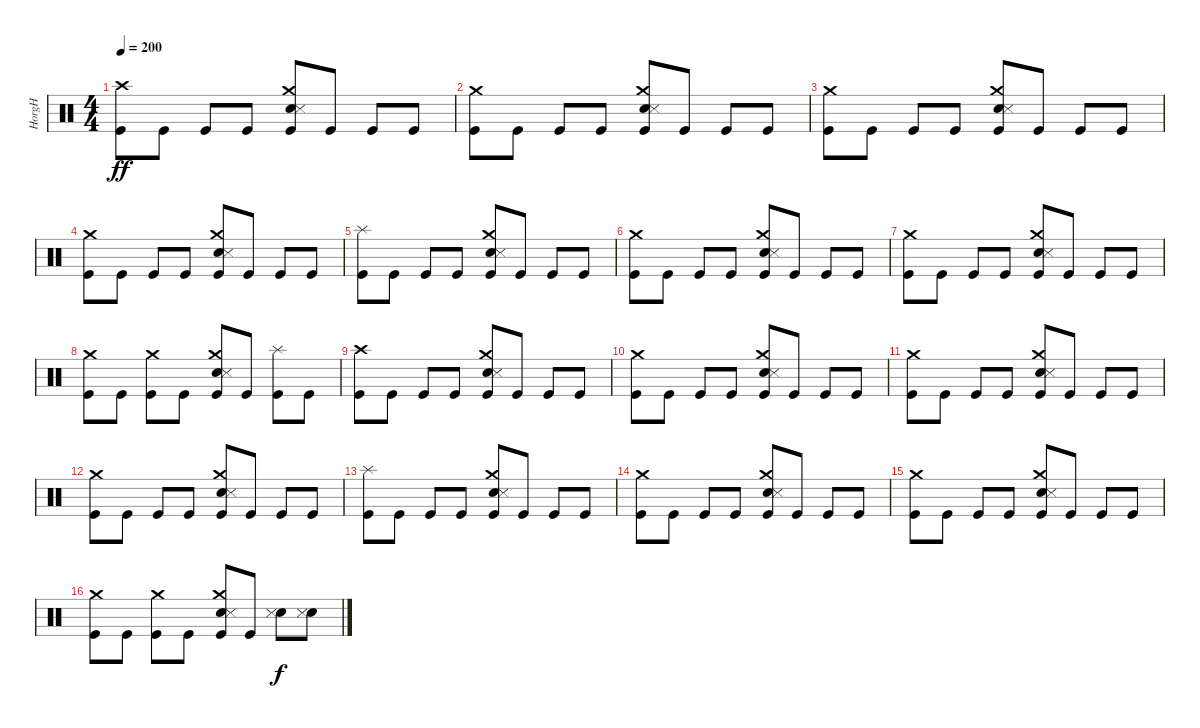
\track ("HorgH" "HorgH") {instrument percussion}
\staff {score}
\articulation defaults
\ts (4 4)
\section ("" "")
\tempo 200
\clef neutral
\ks c
("Crash high (hit)" "Kick (hit)").8{dy ff} "Kick (hit)".8 "Kick (hit)".8 "Kick (hit)".8 ("Crash medium (hit)" "Electric Snare (hit)" "Snare (side stick) 3" "Kick (hit)").8 "Kick (hit)".8 "Kick (hit)".8 "Kick (hit)".8 |
("Crash medium (hit)" "Kick (hit)").8 "Kick (hit)".8 "Kick (hit)".8 "Kick (hit)".8 ("Crash medium (hit)" "Electric Snare (hit)" "Snare (side stick) 3" "Kick (hit)").8 "Kick (hit)".8 "Kick (hit)".8 "Kick (hit)".8 |
("Crash medium (hit)" "Kick (hit)").8 "Kick (hit)".8 "Kick (hit)".8 "Kick (hit)".8 ("Crash medium (hit)" "Electric Snare (hit)" "Snare (side stick) 3" "Kick (hit)").8 "Kick (hit)".8 "Kick (hit)".8 "Kick (hit)".8 |
("Crash medium (hit)" "Kick (hit)").8 "Kick (hit)".8 "Kick (hit)".8 "Kick (hit)".8 ("Crash medium (hit)" "Electric Snare (hit)" "Snare (side stick) 3" "Kick (hit)").8 "Kick (hit)".8 "Kick (hit)".8 "Kick (hit)".8 |
("Splash (hit)" "Kick (hit)").8 "Kick (hit)".8 "Kick (hit)".8 "Kick (hit)".8 ("Crash medium (hit)" "Electric Snare (hit)" "Snare (side stick) 3" "Kick (hit)").8 "Kick (hit)".8 "Kick (hit)".8 "Kick (hit)".8 |
("Crash medium (hit)" "Kick (hit)").8 "Kick (hit)".8 "Kick (hit)".8 "Kick (hit)".8 ("Crash medium (hit)" "Electric Snare (hit)" "Snare (side stick) 3" "Kick (hit)").8 "Kick (hit)".8 "Kick (hit)".8 "Kick (hit)".8 |
("Crash medium (hit)" "Kick (hit)").8 "Kick (hit)".8 "Kick (hit)".8 "Kick (hit)".8 ("Crash medium (hit)" "Electric Snare (hit)" "Snare (side stick) 3" "Kick (hit)").8 "Kick (hit)".8 "Kick (hit)".8 "Kick (hit)".8 |
("Crash medium (hit)" "Kick (hit)").8 "Kick (hit)".8 ("Crash medium (hit)" "Kick (hit)").8 "Kick (hit)".8 ("Crash medium (hit)" "Electric Snare (hit)" "Snare (side stick) 3" "Kick (hit)").8 "Kick (hit)".8 ("Splash (hit)" "Kick (hit)").8 "Kick (hit)".8 |
("Crash high (hit)" "Kick (hit)").8 "Kick (hit)".8 "Kick (hit)".8 "Kick (hit)".8 ("Crash medium (hit)" "Electric Snare (hit)" "Snare (side stick) 3" "Kick (hit)").8 "Kick (hit)".8 "Kick (hit)".8 "Kick (hit)".8 |
("Crash medium (hit)" "Kick (hit)").8 "Kick (hit)".8 "Kick (hit)".8 "Kick (hit)".8 ("Crash medium (hit)" "Electric Snare (hit)" "Snare (side stick) 3" "Kick (hit)").8 "Kick (hit)".8 "Kick (hit)".8 "Kick (hit)".8 |
("Crash medium (hit)" "Kick (hit)").8 "Kick (hit)".8 "Kick (hit)".8 "Kick (hit)".8 ("Crash medium (hit)" "Electric Snare (hit)" "Snare (side stick) 3" "Kick (hit)").8 "Kick (hit)".8 "Kick (hit)".8 "Kick (hit)".8 |
("Crash medium (hit)" "Kick (hit)").8 "Kick (hit)".8 "Kick (hit)".8 "Kick (hit)".8 ("Crash medium (hit)" "Electric Snare (hit)" "Snare (side stick) 3" "Kick (hit)").8 "Kick (hit)".8 "Kick (hit)".8 "Kick (hit)".8 |
("Splash (hit)" "Kick (hit)").8 "Kick (hit)".8 "Kick (hit)".8 "Kick (hit)".8 ("Crash medium (hit)" "Electric Snare (hit)" "Snare (side stick) 3" "Kick (hit)").8 "Kick (hit)".8 "Kick (hit)".8 "Kick (hit)".8 |
("Crash medium (hit)" "Kick (hit)").8 "Kick (hit)".8 "Kick (hit)".8 "Kick (hit)".8 ("Crash medium (hit)" "Electric Snare (hit)" "Snare (side stick) 3" "Kick (hit)").8 "Kick (hit)".8 "Kick (hit)".8 "Kick (hit)".8 |
("Crash medium (hit)" "Kick (hit)").8 "Kick (hit)".8 "Kick (hit)".8 "Kick (hit)".8 ("Crash medium (hit)" "Electric Snare (hit)" "Snare (side stick) 3" "Kick (hit)").8 "Kick (hit)".8 "Kick (hit)".8 "Kick (hit)".8 |
("Crash medium (hit)" "Kick (hit)").8 "Kick (hit)".8 ("Crash medium (hit)" "Kick (hit)").8 "Kick (hit)".8 ("Crash medium (hit)" "Electric Snare (hit)" "Snare (side stick) 3" "Kick (hit)").8 "Kick (hit)".8 ("Electric Snare (hit)" "Snare (side stick) 3").8{dy f} ("Electric Snare (hit)" "Snare (side stick) 3").8
